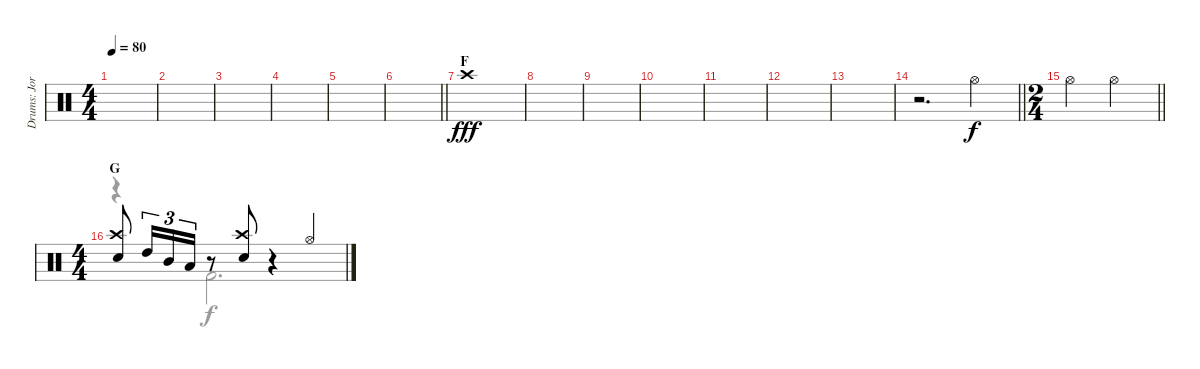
\track ("Drums: Jorg" "Drums: Jor") {instrument percussion}
\staff {score}
\articulation defaults
\voice
\ts (4 4)
\tempo 80
\clef neutral
\ks c
|
|
|
|
|
\barLineRight lightlight
|
\section ("" "F")
"Crash high (hit)".1{dy fff} |
|
|
|
|
|
|
\barLineRight lightlight
r.2{d} "Hi-Hat (open)".4{dy f} |
\ts (2 4)
\barLineRight lightlight "Hi-Hat (open)".4 "Hi-Hat (open)".4
|
\ts (4 4)
\section ("" "G")
("Crash high (hit)" "Snare (hit) 2").8 "High Tom (hit)".16{tu (3 2)} "Mid Tom (hit)".16{tu (3 2)} "Low Tom (hit)".16{tu (3 2)} r.8 ("Crash high (hit)" "Snare (hit) 2").8 r.4 "Hi-Hat (open)".4
\voice
\clef neutral
\ottava regular
\simile none
\ks c
|
|
|
|
|
\barLineRight lightlight
|
|
|
|
|
|
|
|
\barLineRight lightlight
|
\barLineRight lightlight
|
r.4 "Kick (hit) 2".2{d}
